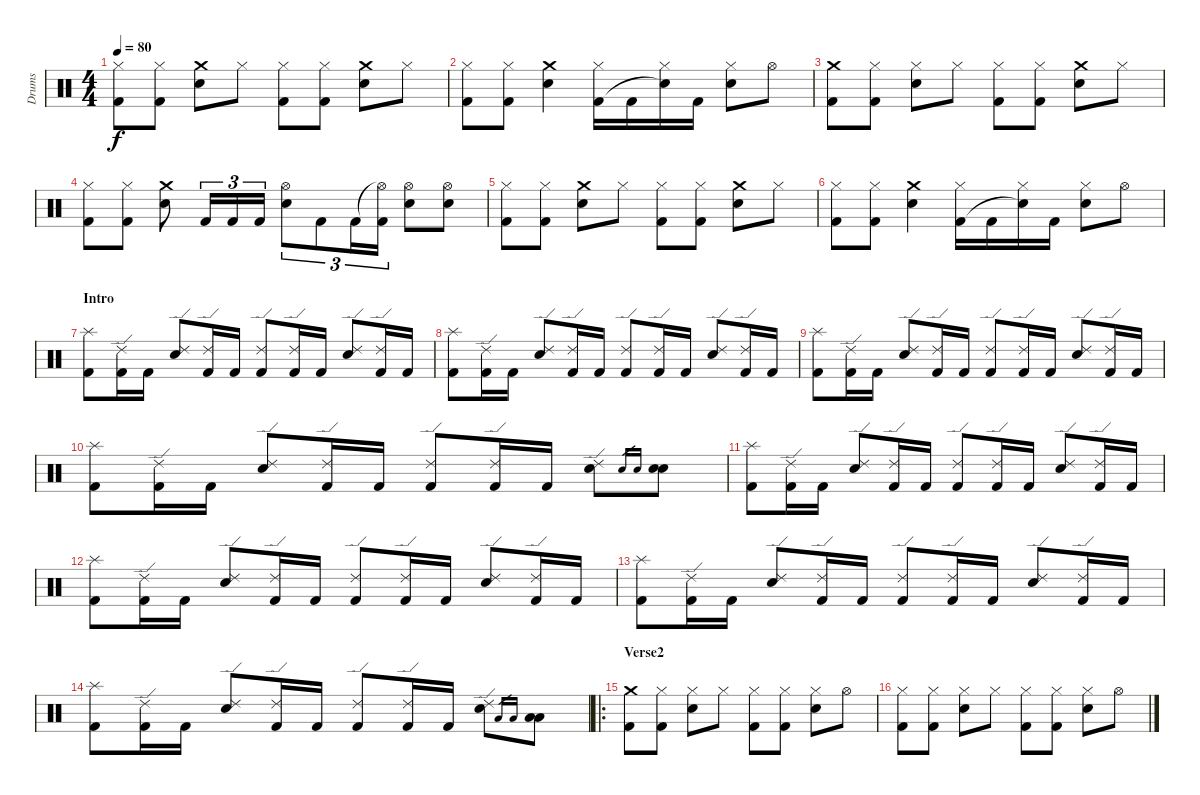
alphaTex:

\track ("Drums" "Drums") {instrument percussion}
\staff {score}
\articulation defaults
\ts (4 4)
\tempo 80
\clef neutral
\ks c
("Hi-Hat (closed)" "Kick (hit) 2").8{dy f} ("Hi-Hat (closed)" "Kick (hit) 2").8 ("Crash medium (hit)" "Snare (hit) 2").8 "Hi-Hat (closed)".8 ("Hi-Hat (closed)" "Kick (hit) 2").8 ("Hi-Hat (closed)" "Kick (hit) 2").8 ("Crash medium (hit)" "Snare (hit) 2").8 "Hi-Hat (closed)".8 |
("Hi-Hat (closed)" "Kick (hit) 2").8 ("Hi-Hat (closed)" "Kick (hit) 2").8 ("Crash medium (hit)" "Snare (hit) 2").4 ("Hi-Hat (closed)" "Kick (hit) 2").16 "Kick (hit) 2".16 ("Hi-Hat (closed)" "Snare (hit)"{t}).16 "Kick (hit) 2".16 ("Hi-Hat (closed)" "Snare (hit) 2").8 "Hi-Hat (open)".8 |
("Crash medium (hit)" "Kick (hit) 2").8 ("Hi-Hat (closed)" "Kick (hit) 2").8 ("Hi-Hat (closed)" "Snare (hit) 2").8 "Hi-Hat (closed)".8 ("Hi-Hat (closed)" "Kick (hit) 2").8 ("Hi-Hat (closed)" "Kick (hit) 2").8 ("Crash medium (hit)" "Snare (hit) 2").8 "Hi-Hat (closed)".8 |
("Hi-Hat (closed)" "Kick (hit) 2").8 ("Hi-Hat (closed)" "Kick (hit) 2").8 ("Crash medium (hit)" "Snare (hit) 2").8 "Kick (hit) 2".16{tu (3 2)} "Kick (hit) 2".16{tu (3 2)} "Kick (hit) 2".16{tu (3 2)} ("Hi-Hat (open)" "Snare (hit) 2").8{tu (3 2)} "Kick (hit) 2".8{tu (3 2)} "Kick (hit) 2".16{tu (3 2)} ("Hi-Hat (open)"{t} "Kick (hit) 2").16{tu (3 2)} ("Hi-Hat (open)" "Snare (hit) 2").8 ("Hi-Hat (open)" "Snare (hit) 2").8 |
("Hi-Hat (closed)" "Kick (hit) 2").8 ("Hi-Hat (closed)" "Kick (hit) 2").8 ("Crash medium (hit)" "Snare (hit) 2").8 "Hi-Hat (closed)".8 ("Hi-Hat (closed)" "Kick (hit) 2").8 ("Hi-Hat (closed)" "Kick (hit) 2").8 ("Crash medium (hit)" "Snare (hit) 2").8 "Hi-Hat (closed)".8 |
("Hi-Hat (closed)" "Kick (hit) 2").8 ("Hi-Hat (closed)" "Kick (hit) 2").8 ("Crash medium (hit)" "Snare (hit) 2").4 ("Hi-Hat (closed)" "Kick (hit) 2").16 "Kick (hit) 2".16 ("Hi-Hat (closed)" "Snare (hit)"{t}).16 "Kick (hit) 2".16 ("Hi-Hat (closed)" "Snare (hit) 2").8 "Hi-Hat (open)".8 |
\section ("" "Intro")
("Splash (hit)" "Kick (hit) 2").8 ("Ride (edge) 2" "Kick (hit) 2").16 "Kick (hit) 2".16 ("Ride (edge) 2" "Snare (hit) 2").8 ("Ride (edge) 2" "Kick (hit) 2").16 "Kick (hit) 2".16 ("Ride (edge) 2" "Kick (hit) 2").8 ("Ride (edge) 2" "Kick (hit) 2").16 "Kick (hit) 2".16 ("Ride (edge) 2" "Snare (hit) 2").8 ("Ride (edge) 2" "Kick (hit) 2").16 "Kick (hit) 2".16 |
("Splash (hit)" "Kick (hit) 2").8 ("Ride (edge) 2" "Kick (hit) 2").16 "Kick (hit) 2".16 ("Ride (edge) 2" "Snare (hit) 2").8 ("Ride (edge) 2" "Kick (hit) 2").16 "Kick (hit) 2".16 ("Ride (edge) 2" "Kick (hit) 2").8 ("Ride (edge) 2" "Kick (hit) 2").16 "Kick (hit) 2".16 ("Ride (edge) 2" "Snare (hit) 2").8 ("Ride (edge) 2" "Kick (hit) 2").16 "Kick (hit) 2".16 |
("Splash (hit)" "Kick (hit) 2").8 ("Ride (edge) 2" "Kick (hit) 2").16 "Kick (hit) 2".16 ("Ride (edge) 2" "Snare (hit) 2").8 ("Ride (edge) 2" "Kick (hit) 2").16 "Kick (hit) 2".16 ("Ride (edge) 2" "Kick (hit) 2").8 ("Ride (edge) 2" "Kick (hit) 2").16 "Kick (hit) 2".16 ("Ride (edge) 2" "Snare (hit) 2").8 ("Ride (edge) 2" "Kick (hit) 2").16 "Kick (hit) 2".16 |
("Splash (hit)" "Kick (hit) 2").8 ("Ride (edge) 2" "Kick (hit) 2").16 "Kick (hit) 2".16 ("Ride (edge) 2" "Snare (hit) 2").8 ("Ride (edge) 2" "Kick (hit) 2").16 "Kick (hit) 2".16 ("Ride (edge) 2" "Kick (hit) 2").8 ("Ride (edge) 2" "Kick (hit) 2").16 "Kick (hit) 2".16 ("Ride (edge) 2" "Snare (hit) 2").8 "Snare (hit) 2".16{gr} "Snare (hit) 2".16{gr} ("Snare (hit) 2" "Snare (hit) 2").8 |
("Splash (hit)" "Kick (hit) 2").8 ("Ride (edge) 2" "Kick (hit) 2").16 "Kick (hit) 2".16 ("Ride (edge) 2" "Snare (hit) 2").8 ("Ride (edge) 2" "Kick (hit) 2").16 "Kick (hit) 2".16 ("Ride (edge) 2" "Kick (hit) 2").8 ("Ride (edge) 2" "Kick (hit) 2").16 "Kick (hit) 2".16 ("Ride (edge) 2" "Snare (hit) 2").8 ("Ride (edge) 2" "Kick (hit) 2").16 "Kick (hit) 2".16 |
("Splash (hit)" "Kick (hit) 2").8 ("Ride (edge) 2" "Kick (hit) 2").16 "Kick (hit) 2".16 ("Ride (edge) 2" "Snare (hit) 2").8 ("Ride (edge) 2" "Kick (hit) 2").16 "Kick (hit) 2".16 ("Ride (edge) 2" "Kick (hit) 2").8 ("Ride (edge) 2" "Kick (hit) 2").16 "Kick (hit) 2".16 ("Ride (edge) 2" "Snare (hit) 2").8 ("Ride (edge) 2" "Kick (hit) 2").16 "Kick (hit) 2".16 |
("Splash (hit)" "Kick (hit) 2").8 ("Ride (edge) 2" "Kick (hit) 2").16 "Kick (hit) 2".16 ("Ride (edge) 2" "Snare (hit) 2").8 ("Ride (edge) 2" "Kick (hit) 2").16 "Kick (hit) 2".16 ("Ride (edge) 2" "Kick (hit) 2").8 ("Ride (edge) 2" "Kick (hit) 2").16 "Kick (hit) 2".16 ("Ride (edge) 2" "Snare (hit) 2").8 ("Ride (edge) 2" "Kick (hit) 2").16 "Kick (hit) 2".16 |
("Splash (hit)" "Kick (hit) 2").8 ("Ride (edge) 2" "Kick (hit) 2").16 "Kick (hit) 2".16 ("Ride (edge) 2" "Snare (hit) 2").8 ("Ride (edge) 2" "Kick (hit) 2").16 "Kick (hit) 2".16 ("Ride (edge) 2" "Kick (hit) 2").8 ("Ride (edge) 2" "Kick (hit) 2").16 "Kick (hit) 2".16 ("Ride (edge) 2" "Snare (hit) 2").8 "Low Tom (hit)".16{gr} "Low Tom (hit)".16{gr} ("Low Tom (hit)" "Low Tom (hit)").8 |
\ro
\section ("" "Verse2")
("Crash medium (hit)" "Kick (hit) 2").8 ("Hi-Hat (closed)" "Kick (hit) 2").8 ("Hi-Hat (closed)" "Snare (hit) 2").8 "Hi-Hat (closed)".8 ("Hi-Hat (closed)" "Kick (hit) 2").8 ("Hi-Hat (closed)" "Kick (hit) 2").8 ("Hi-Hat (closed)" "Snare (hit) 2").8 "Hi-Hat (open)".8 |
("Hi-Hat (closed)" "Kick (hit) 2").8 ("Hi-Hat (closed)" "Kick (hit) 2").8 ("Hi-Hat (closed)" "Snare (hit) 2").8 "Hi-Hat (closed)".8 ("Hi-Hat (closed)" "Kick (hit) 2").8 ("Hi-Hat (closed)" "Kick (hit) 2").8 ("Hi-Hat (closed)" "Snare (hit) 2").8 "Hi-Hat (open)".8
